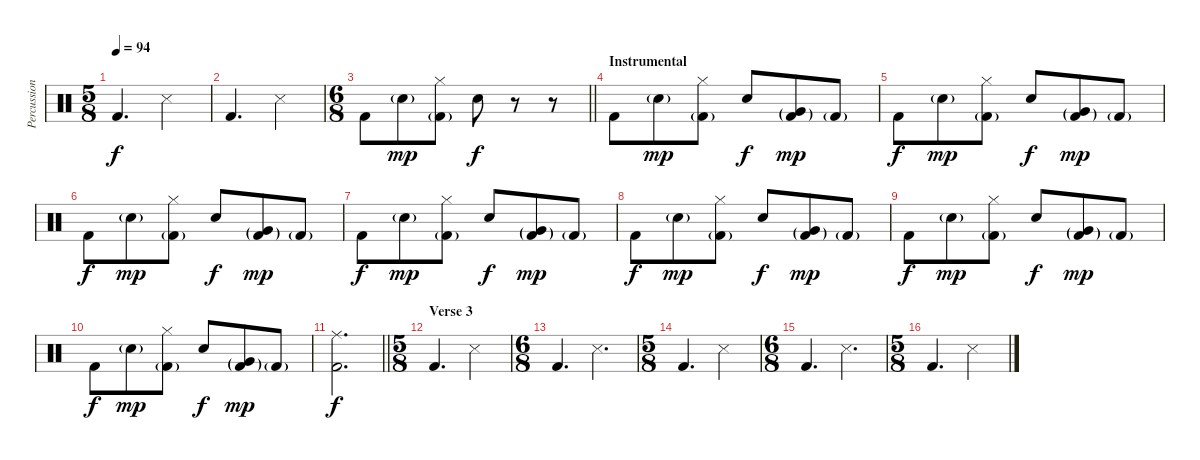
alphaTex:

\track ("Percussion" "Percussion") {instrument percussion}
\staff {score}
\articulation defaults
\ts (5 8)
\tempo 94
\clef neutral
\ks c "Kick (hit) 2".4{d dy f} "Snare (side stick) 3".4
|
"Kick (hit) 2".4{d} "Snare (side stick) 3".4 |
\ts (6 8)
\barLineRight lightlight "Kick (hit) 2".8 "Snare (hit) 2"{g}.8{dy mp}
("Hi-Hat (closed)" "Kick (hit) 2"{g}).8 "Snare (hit) 2".8{dy f} r.8 r.8 |
\section ("" "Instrumental")
"Kick (hit) 2".8 "Snare (hit) 2"{g}.8{dy mp} ("Hi-Hat (closed)" "Kick (hit) 2"{g}).8 "Snare (hit) 2".8{dy f} ("Very Low Tom (hit)"{g} "Kick (hit) 2"{g}).8{dy mp} "Kick (hit) 2"{g}.8 |
"Kick (hit) 2".8{dy f} "Snare (hit) 2"{g}.8{dy mp} ("Hi-Hat (closed)" "Kick (hit) 2"{g}).8 "Snare (hit) 2".8{dy f} ("Very Low Tom (hit)"{g} "Kick (hit) 2"{g}).8{dy mp} "Kick (hit) 2"{g}.8 |
"Kick (hit) 2".8{dy f} "Snare (hit) 2"{g}.8{dy mp} ("Hi-Hat (closed)" "Kick (hit) 2"{g}).8 "Snare (hit) 2".8{dy f} ("Very Low Tom (hit)"{g} "Kick (hit) 2"{g}).8{dy mp} "Kick (hit) 2"{g}.8 |
"Kick (hit) 2".8{dy f} "Snare (hit) 2"{g}.8{dy mp} ("Hi-Hat (closed)" "Kick (hit) 2"{g}).8 "Snare (hit) 2".8{dy f} ("Very Low Tom (hit)"{g} "Kick (hit) 2"{g}).8{dy mp} "Kick (hit) 2"{g}.8 |
"Kick (hit) 2".8{dy f} "Snare (hit) 2"{g}.8{dy mp} ("Hi-Hat (closed)" "Kick (hit) 2"{g}).8 "Snare (hit) 2".8{dy f} ("Very Low Tom (hit)"{g} "Kick (hit) 2"{g}).8{dy mp} "Kick (hit) 2"{g}.8 |
"Kick (hit) 2".8{dy f} "Snare (hit) 2"{g}.8{dy mp} ("Hi-Hat (closed)" "Kick (hit) 2"{g}).8 "Snare (hit) 2".8{dy f} ("Very Low Tom (hit)"{g} "Kick (hit) 2"{g}).8{dy mp} "Kick (hit) 2"{g}.8 |
"Kick (hit) 2".8{dy f} "Snare (hit) 2"{g}.8{dy mp} ("Hi-Hat (closed)" "Kick (hit) 2"{g}).8 "Snare (hit) 2".8{dy f} ("Very Low Tom (hit)"{g} "Kick (hit) 2"{g}).8{dy mp} "Kick (hit) 2"{g}.8 |
\barLineRight lightlight
("Ride (middle)" "Kick (hit) 2").2{d dy f} |
\ts (5 8)
\section ("" "Verse 3")
"Kick (hit) 2".4{d} "Snare (side stick) 3".4 |
\ts (6 8)
"Kick (hit) 2".4{d} "Snare (side stick) 3".4{d} |
\ts (5 8)
"Kick (hit) 2".4{d} "Snare (side stick) 3".4 |
\ts (6 8)
"Kick (hit) 2".4{d} "Snare (side stick) 3".4{d} |
\ts (5 8)
"Kick (hit) 2".4{d} "Snare (side stick) 3".4
